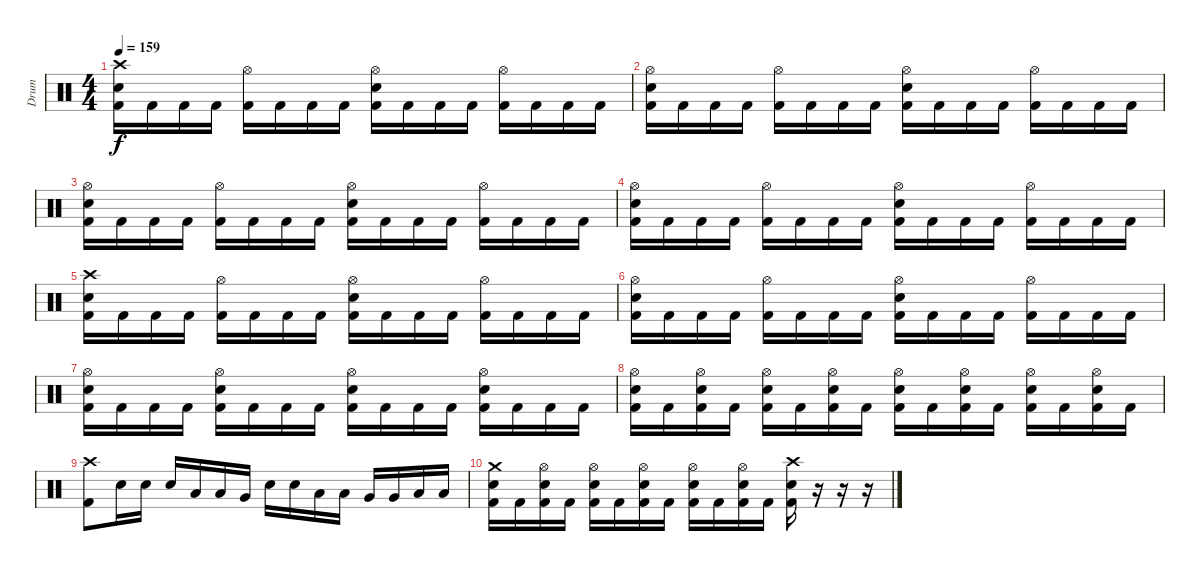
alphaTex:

\track ("Drum" "Drum") {instrument percussion}
\staff {score}
\articulation defaults
\ts (4 4)
\section ("" "")
\tempo 159
\clef neutral
\ks c
("Crash high (hit)" "Snare (hit) 2" "Kick (hit) 2").16{dy f} "Kick (hit) 2".16 "Kick (hit) 2".16 "Kick (hit) 2".16 ("Hi-Hat (open)" "Kick (hit) 2").16 "Kick (hit) 2".16 "Kick (hit) 2".16 "Kick (hit) 2".16 ("Hi-Hat (open)" "Snare (hit) 2" "Kick (hit) 2").16 "Kick (hit) 2".16 "Kick (hit) 2".16 "Kick (hit) 2".16 ("Hi-Hat (open)" "Kick (hit) 2").16 "Kick (hit) 2".16 "Kick (hit) 2".16 "Kick (hit) 2".16 |
("Hi-Hat (open)" "Snare (hit) 2" "Kick (hit) 2").16 "Kick (hit) 2".16 "Kick (hit) 2".16 "Kick (hit) 2".16 ("Hi-Hat (open)" "Kick (hit) 2").16 "Kick (hit) 2".16 "Kick (hit) 2".16 "Kick (hit) 2".16 ("Hi-Hat (open)" "Snare (hit) 2" "Kick (hit) 2").16 "Kick (hit) 2".16 "Kick (hit) 2".16 "Kick (hit) 2".16 ("Hi-Hat (open)" "Kick (hit) 2").16 "Kick (hit) 2".16 "Kick (hit) 2".16 "Kick (hit) 2".16 |
("Hi-Hat (open)" "Snare (hit) 2" "Kick (hit) 2").16 "Kick (hit) 2".16 "Kick (hit) 2".16 "Kick (hit) 2".16 ("Hi-Hat (open)" "Kick (hit) 2").16 "Kick (hit) 2".16 "Kick (hit) 2".16 "Kick (hit) 2".16 ("Hi-Hat (open)" "Snare (hit) 2" "Kick (hit) 2").16 "Kick (hit) 2".16 "Kick (hit) 2".16 "Kick (hit) 2".16 ("Hi-Hat (open)" "Kick (hit) 2").16 "Kick (hit) 2".16 "Kick (hit) 2".16 "Kick (hit) 2".16 |
("Hi-Hat (open)" "Snare (hit) 2" "Kick (hit) 2").16 "Kick (hit) 2".16 "Kick (hit) 2".16 "Kick (hit) 2".16 ("Hi-Hat (open)" "Kick (hit) 2").16 "Kick (hit) 2".16 "Kick (hit) 2".16 "Kick (hit) 2".16 ("Hi-Hat (open)" "Snare (hit) 2" "Kick (hit) 2").16 "Kick (hit) 2".16 "Kick (hit) 2".16 "Kick (hit) 2".16 ("Hi-Hat (open)" "Kick (hit) 2").16 "Kick (hit) 2".16 "Kick (hit) 2".16 "Kick (hit) 2".16 |
("Crash high (hit)" "Snare (hit) 2" "Kick (hit) 2").16 "Kick (hit) 2".16 "Kick (hit) 2".16 "Kick (hit) 2".16 ("Hi-Hat (open)" "Kick (hit) 2").16 "Kick (hit) 2".16 "Kick (hit) 2".16 "Kick (hit) 2".16 ("Hi-Hat (open)" "Snare (hit) 2" "Kick (hit) 2").16 "Kick (hit) 2".16 "Kick (hit) 2".16 "Kick (hit) 2".16 ("Hi-Hat (open)" "Kick (hit) 2").16 "Kick (hit) 2".16 "Kick (hit) 2".16 "Kick (hit) 2".16 |
("Hi-Hat (open)" "Snare (hit) 2" "Kick (hit) 2").16 "Kick (hit) 2".16 "Kick (hit) 2".16 "Kick (hit) 2".16 ("Hi-Hat (open)" "Kick (hit) 2").16 "Kick (hit) 2".16 "Kick (hit) 2".16 "Kick (hit) 2".16 ("Hi-Hat (open)" "Snare (hit) 2" "Kick (hit) 2").16 "Kick (hit) 2".16 "Kick (hit) 2".16 "Kick (hit) 2".16 ("Hi-Hat (open)" "Kick (hit) 2").16 "Kick (hit) 2".16 "Kick (hit) 2".16 "Kick (hit) 2".16 |
("Hi-Hat (open)" "Snare (hit) 2" "Kick (hit) 2").16 "Kick (hit) 2".16 "Kick (hit) 2".16 "Kick (hit) 2".16 ("Hi-Hat (open)" "Snare (hit) 2" "Kick (hit) 2").16 "Kick (hit) 2".16 "Kick (hit) 2".16 "Kick (hit) 2".16 ("Hi-Hat (open)" "Snare (hit) 2" "Kick (hit) 2").16 "Kick (hit) 2".16 "Kick (hit) 2".16 "Kick (hit) 2".16 ("Hi-Hat (open)" "Snare (hit) 2" "Kick (hit) 2").16 "Kick (hit) 2".16 "Kick (hit) 2".16 "Kick (hit) 2".16 |
("Hi-Hat (open)" "Snare (hit) 2" "Kick (hit) 2").16 "Kick (hit) 2".16 ("Hi-Hat (open)" "Snare (hit) 2" "Kick (hit) 2").16 "Kick (hit) 2".16 ("Hi-Hat (open)" "Snare (hit) 2" "Kick (hit) 2").16 "Kick (hit) 2".16 ("Hi-Hat (open)" "Snare (hit) 2" "Kick (hit) 2").16 "Kick (hit) 2".16 ("Hi-Hat (open)" "Snare (hit) 2" "Kick (hit) 2").16 "Kick (hit) 2".16 ("Hi-Hat (open)" "Snare (hit) 2" "Kick (hit) 2").16 "Kick (hit) 2".16 ("Hi-Hat (open)" "Snare (hit) 2" "Kick (hit) 2").16 "Kick (hit) 2".16 ("Hi-Hat (open)" "Snare (hit) 2" "Kick (hit) 2").16 "Kick (hit) 2".16 |
("Crash high (hit)" "Kick (hit) 2").8 "Snare (hit) 2".16 "Snare (hit) 2".16 "Snare (hit) 2".16 "Low Tom (hit)".16 "Low Tom (hit)".16 "Very Low Tom (hit)".16 "Snare (hit) 2".16 "Snare (hit) 2".16 "Low Tom (hit)".16 "Low Tom (hit)".16 "Very Low Tom (hit)".16 "Very Low Tom (hit)".16 "Low Floor Tom (hit)".16 "Low Floor Tom (hit)".16 |
("Crash medium (hit)" "Snare (hit) 2" "Kick (hit) 2").16 "Kick (hit) 2".16 ("Hi-Hat (open)" "Snare (hit) 2" "Kick (hit) 2").16 "Kick (hit) 2".16 ("Hi-Hat (open)" "Snare (hit) 2" "Kick (hit) 2").16 "Kick (hit) 2".16 ("Hi-Hat (open)" "Snare (hit) 2" "Kick (hit) 2").16 "Kick (hit) 2".16 ("Hi-Hat (open)" "Snare (hit) 2" "Kick (hit) 2").16 "Kick (hit) 2".16 ("Hi-Hat (open)" "Snare (hit) 2" "Kick (hit) 2").16 "Kick (hit) 2".16 ("Crash high (hit)" "Snare (hit) 2" "Kick (hit) 2").16 r.16 r.16 r.16
